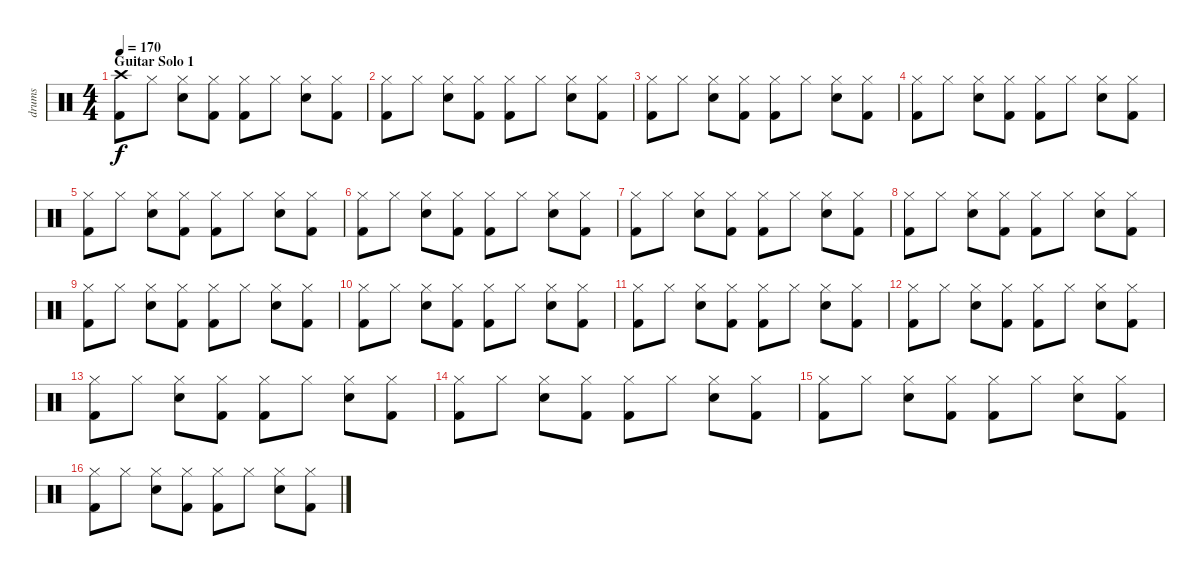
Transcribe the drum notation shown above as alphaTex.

\track ("drums" "drums") {instrument percussion}
\staff {score}
\articulation defaults
\ts (4 4)
\section ("" "Guitar Solo 1")
\tempo 170
\clef neutral
\ks c
("Crash high (hit)" "Kick (hit) 2").8{dy f} "Hi-Hat (closed)".8 ("Hi-Hat (closed)" "Snare (hit) 2").8 ("Hi-Hat (closed)" "Kick (hit) 2").8 ("Hi-Hat (closed)" "Kick (hit) 2").8 "Hi-Hat (closed)".8 ("Hi-Hat (closed)" "Snare (hit) 2").8 ("Hi-Hat (closed)" "Kick (hit) 2").8 |
("Hi-Hat (closed)" "Kick (hit) 2").8 "Hi-Hat (closed)".8 ("Hi-Hat (closed)" "Snare (hit) 2").8 ("Hi-Hat (closed)" "Kick (hit) 2").8 ("Hi-Hat (closed)" "Kick (hit) 2").8 "Hi-Hat (closed)".8 ("Hi-Hat (closed)" "Snare (hit) 2").8 ("Hi-Hat (closed)" "Kick (hit) 2").8 |
("Hi-Hat (closed)" "Kick (hit) 2").8 "Hi-Hat (closed)".8 ("Hi-Hat (closed)" "Snare (hit) 2").8 ("Hi-Hat (closed)" "Kick (hit) 2").8 ("Hi-Hat (closed)" "Kick (hit) 2").8 "Hi-Hat (closed)".8 ("Hi-Hat (closed)" "Snare (hit) 2").8 ("Hi-Hat (closed)" "Kick (hit) 2").8 |
("Hi-Hat (closed)" "Kick (hit) 2").8 "Hi-Hat (closed)".8 ("Hi-Hat (closed)" "Snare (hit) 2").8 ("Hi-Hat (closed)" "Kick (hit) 2").8 ("Hi-Hat (closed)" "Kick (hit) 2").8 "Hi-Hat (closed)".8 ("Hi-Hat (closed)" "Snare (hit) 2").8 ("Hi-Hat (closed)" "Kick (hit) 2").8 |
("Hi-Hat (closed)" "Kick (hit) 2").8 "Hi-Hat (closed)".8 ("Hi-Hat (closed)" "Snare (hit) 2").8 ("Hi-Hat (closed)" "Kick (hit) 2").8 ("Hi-Hat (closed)" "Kick (hit) 2").8 "Hi-Hat (closed)".8 ("Hi-Hat (closed)" "Snare (hit) 2").8 ("Hi-Hat (closed)" "Kick (hit) 2").8 |
("Hi-Hat (closed)" "Kick (hit) 2").8 "Hi-Hat (closed)".8 ("Hi-Hat (closed)" "Snare (hit) 2").8 ("Hi-Hat (closed)" "Kick (hit) 2").8 ("Hi-Hat (closed)" "Kick (hit) 2").8 "Hi-Hat (closed)".8 ("Hi-Hat (closed)" "Snare (hit) 2").8 ("Hi-Hat (closed)" "Kick (hit) 2").8 |
("Hi-Hat (closed)" "Kick (hit) 2").8 "Hi-Hat (closed)".8 ("Hi-Hat (closed)" "Snare (hit) 2").8 ("Hi-Hat (closed)" "Kick (hit) 2").8 ("Hi-Hat (closed)" "Kick (hit) 2").8 "Hi-Hat (closed)".8 ("Hi-Hat (closed)" "Snare (hit) 2").8 ("Hi-Hat (closed)" "Kick (hit) 2").8 |
("Hi-Hat (closed)" "Kick (hit) 2").8 "Hi-Hat (closed)".8 ("Hi-Hat (closed)" "Snare (hit) 2").8 ("Hi-Hat (closed)" "Kick (hit) 2").8 ("Hi-Hat (closed)" "Kick (hit) 2").8 "Hi-Hat (closed)".8 ("Hi-Hat (closed)" "Snare (hit) 2").8 ("Hi-Hat (closed)" "Kick (hit) 2").8 |
("Hi-Hat (closed)" "Kick (hit) 2").8 "Hi-Hat (closed)".8 ("Hi-Hat (closed)" "Snare (hit) 2").8 ("Hi-Hat (closed)" "Kick (hit) 2").8 ("Hi-Hat (closed)" "Kick (hit) 2").8 "Hi-Hat (closed)".8 ("Hi-Hat (closed)" "Snare (hit) 2").8 ("Hi-Hat (closed)" "Kick (hit) 2").8 |
("Hi-Hat (closed)" "Kick (hit) 2").8 "Hi-Hat (closed)".8 ("Hi-Hat (closed)" "Snare (hit) 2").8 ("Hi-Hat (closed)" "Kick (hit) 2").8 ("Hi-Hat (closed)" "Kick (hit) 2").8 "Hi-Hat (closed)".8 ("Hi-Hat (closed)" "Snare (hit) 2").8 ("Hi-Hat (closed)" "Kick (hit) 2").8 |
("Hi-Hat (closed)" "Kick (hit) 2").8 "Hi-Hat (closed)".8 ("Hi-Hat (closed)" "Snare (hit) 2").8 ("Hi-Hat (closed)" "Kick (hit) 2").8 ("Hi-Hat (closed)" "Kick (hit) 2").8 "Hi-Hat (closed)".8 ("Hi-Hat (closed)" "Snare (hit) 2").8 ("Hi-Hat (closed)" "Kick (hit) 2").8 |
("Hi-Hat (closed)" "Kick (hit) 2").8 "Hi-Hat (closed)".8 ("Hi-Hat (closed)" "Snare (hit) 2").8 ("Hi-Hat (closed)" "Kick (hit) 2").8 ("Hi-Hat (closed)" "Kick (hit) 2").8 "Hi-Hat (closed)".8 ("Hi-Hat (closed)" "Snare (hit) 2").8 ("Hi-Hat (closed)" "Kick (hit) 2").8 |
("Hi-Hat (closed)" "Kick (hit) 2").8 "Hi-Hat (closed)".8 ("Hi-Hat (closed)" "Snare (hit) 2").8 ("Hi-Hat (closed)" "Kick (hit) 2").8 ("Hi-Hat (closed)" "Kick (hit) 2").8 "Hi-Hat (closed)".8 ("Hi-Hat (closed)" "Snare (hit) 2").8 ("Hi-Hat (closed)" "Kick (hit) 2").8 |
("Hi-Hat (closed)" "Kick (hit) 2").8 "Hi-Hat (closed)".8 ("Hi-Hat (closed)" "Snare (hit) 2").8 ("Hi-Hat (closed)" "Kick (hit) 2").8 ("Hi-Hat (closed)" "Kick (hit) 2").8 "Hi-Hat (closed)".8 ("Hi-Hat (closed)" "Snare (hit) 2").8 ("Hi-Hat (closed)" "Kick (hit) 2").8 |
("Hi-Hat (closed)" "Kick (hit) 2").8 "Hi-Hat (closed)".8 ("Hi-Hat (closed)" "Snare (hit) 2").8 ("Hi-Hat (closed)" "Kick (hit) 2").8 ("Hi-Hat (closed)" "Kick (hit) 2").8 "Hi-Hat (closed)".8 ("Hi-Hat (closed)" "Snare (hit) 2").8 ("Hi-Hat (closed)" "Kick (hit) 2").8 |
("Hi-Hat (closed)" "Kick (hit) 2").8 "Hi-Hat (closed)".8 ("Hi-Hat (closed)" "Snare (hit) 2").8 ("Hi-Hat (closed)" "Kick (hit) 2").8 ("Hi-Hat (closed)" "Kick (hit) 2").8 "Hi-Hat (closed)".8 ("Hi-Hat (closed)" "Snare (hit) 2").8 ("Hi-Hat (closed)" "Kick (hit) 2").8
